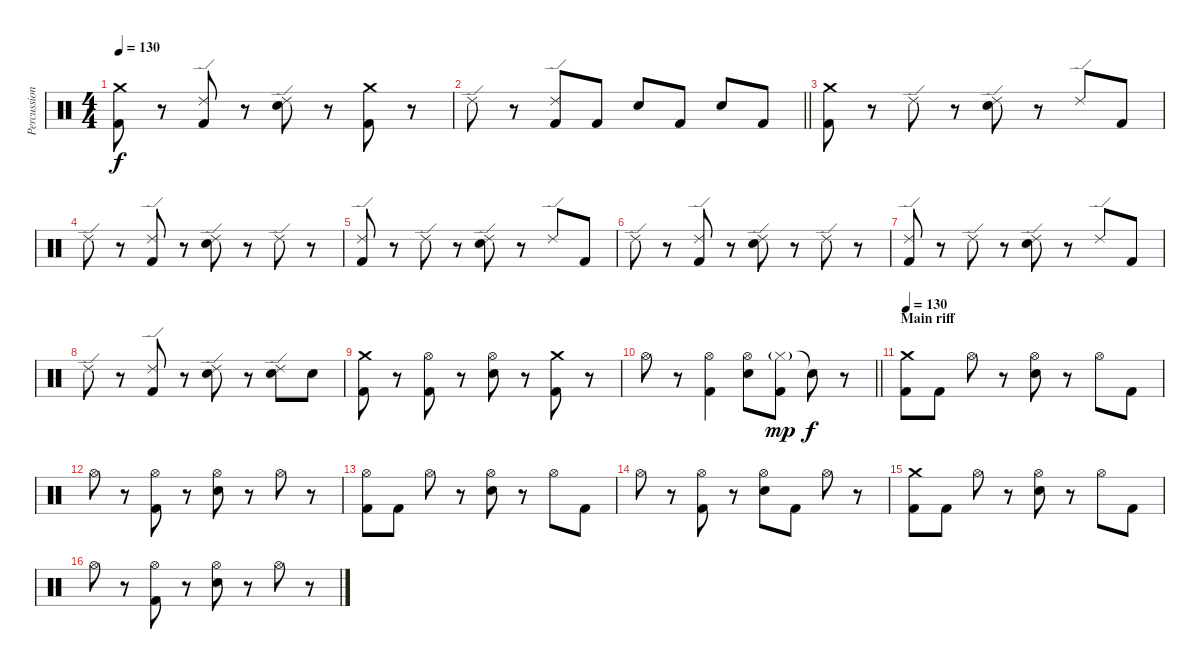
\track ("Percussion" "Percussion") {instrument percussion}
\staff {score}
\articulation defaults
\ts (4 4)
\tempo 130
\clef neutral
\ks c
("Crash medium (hit)" "Kick (hit) 2").8{dy f} r.8 ("Ride (edge) 2" "Kick (hit) 2").8 r.8 ("Ride (edge) 2" "Electric Snare (hit)").8 r.8 ("Crash medium (hit)" "Kick (hit) 2").8 r.8 |
\barLineRight lightlight "Ride (edge) 2".8
r.8 ("Ride (edge) 2" "Kick (hit) 2").8 "Kick (hit) 2".8 "Electric Snare (hit)".8 "Kick (hit) 2".8 "Electric Snare (hit)".8 "Kick (hit) 2".8 |
("Crash medium (hit)" "Kick (hit) 2").8 r.8 "Ride (edge) 2".8 r.8 ("Ride (edge) 2" "Electric Snare (hit)").8 r.8 "Ride (edge) 2".8 "Kick (hit) 2".8 |
"Ride (edge) 2".8 r.8 ("Ride (edge) 2" "Kick (hit) 2").8 r.8 ("Ride (edge) 2" "Electric Snare (hit)").8 r.8 "Ride (edge) 2".8 r.8 |
("Ride (edge) 2" "Kick (hit) 2").8 r.8 "Ride (edge) 2".8 r.8 ("Ride (edge) 2" "Electric Snare (hit)").8 r.8 "Ride (edge) 2".8 "Kick (hit) 2".8 |
"Ride (edge) 2".8 r.8 ("Ride (edge) 2" "Kick (hit) 2").8 r.8 ("Ride (edge) 2" "Electric Snare (hit)").8 r.8 "Ride (edge) 2".8 r.8 |
("Ride (edge) 2" "Kick (hit) 2").8 r.8 "Ride (edge) 2".8 r.8 ("Ride (edge) 2" "Electric Snare (hit)").8 r.8 "Ride (edge) 2".8 "Kick (hit) 2".8 |
"Ride (edge) 2".8 r.8 ("Ride (edge) 2" "Kick (hit) 2").8 r.8 ("Ride (edge) 2" "Electric Snare (hit)").8 r.8 ("Ride (edge) 2" "Electric Snare (hit)").8 "Electric Snare (hit)".8 |
("Crash medium (hit)" "Kick (hit) 2").8 r.8 ("Hi-Hat (open)" "Kick (hit) 2").8 r.8 ("Hi-Hat (open)" "Electric Snare (hit)").8 r.8 ("Crash medium (hit)" "Kick (hit) 2").8 r.8 |
\barLineRight lightlight "Hi-Hat (open)".8
r.8 ("Hi-Hat (open)" "Kick (hit) 2").4 ("Hi-Hat (open)" "Electric Snare (hit)").8 ("Hi-Hat (closed)"{g} "Kick (hit) 2").8{dy mp} "Snare (hit)"{t}.8{dy f} r.8 |
\section ("" "Main riff")
\tempo 130
("Crash medium (hit)" "Kick (hit) 2").8 "Kick (hit) 2".8 "Hi-Hat (open)".8 r.8 ("Hi-Hat (open)" "Electric Snare (hit)").8 r.8 "Hi-Hat (open)".8 "Kick (hit) 2".8 |
"Hi-Hat (open)".8 r.8 ("Hi-Hat (open)" "Kick (hit) 2").8 r.8 ("Hi-Hat (open)" "Electric Snare (hit)").8 r.8 "Hi-Hat (open)".8 r.8 |
("Hi-Hat (open)" "Kick (hit) 2").8 "Kick (hit) 2".8 "Hi-Hat (open)".8 r.8 ("Hi-Hat (open)" "Electric Snare (hit)").8 r.8 "Hi-Hat (open)".8 "Kick (hit) 2".8 |
"Hi-Hat (open)".8 r.8 ("Hi-Hat (open)" "Kick (hit) 2").8 r.8 ("Hi-Hat (open)" "Electric Snare (hit)").8 "Kick (hit) 2".8 "Hi-Hat (open)".8 r.8 |
("Crash medium (hit)" "Kick (hit) 2").8 "Kick (hit) 2".8 "Hi-Hat (open)".8 r.8 ("Hi-Hat (open)" "Electric Snare (hit)").8 r.8 "Hi-Hat (open)".8 "Kick (hit) 2".8 |
"Hi-Hat (open)".8 r.8 ("Hi-Hat (open)" "Kick (hit) 2").8 r.8 ("Hi-Hat (open)" "Electric Snare (hit)").8 r.8 "Hi-Hat (open)".8 r.8
